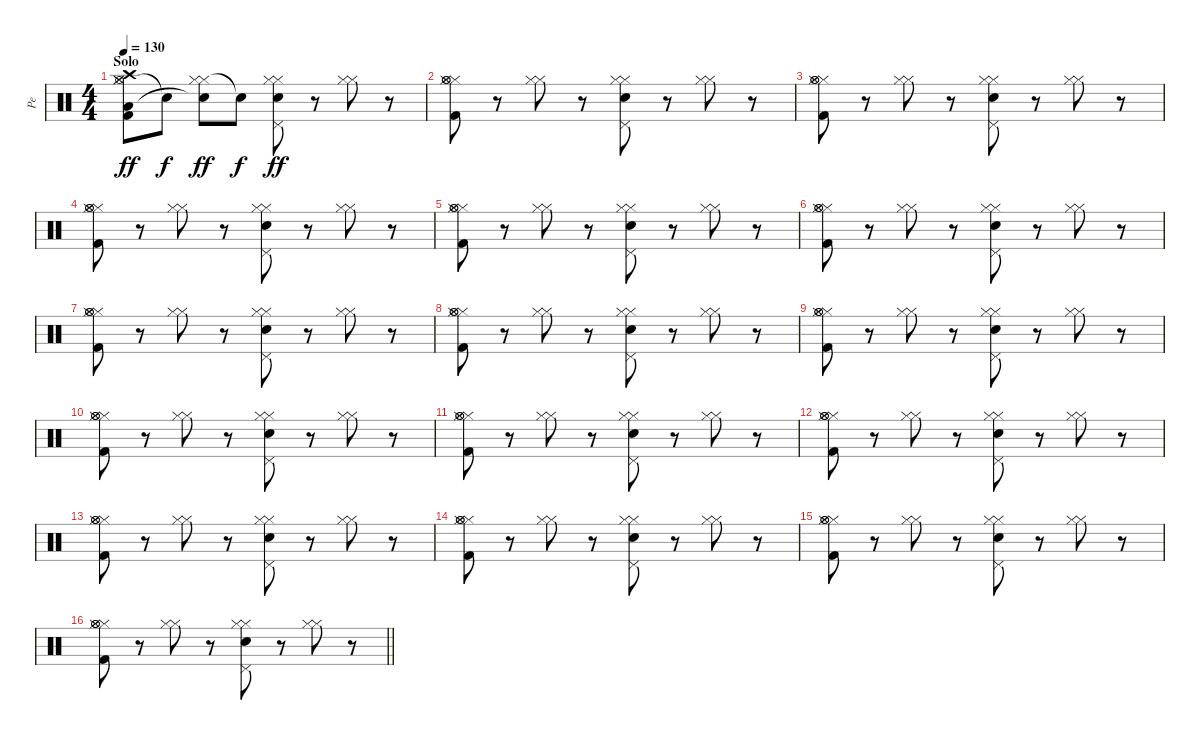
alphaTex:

\track ("Pe" "Pe") {instrument percussion}
\staff {score}
\articulation defaults
\ts (4 4)
\section ("" "Solo")
\tempo 130
\clef neutral
\ks c
("Hi-Hat (closed)" "Hi-Hat (closed)" "Low Floor Tom (hit)" "Hi-Hat (open)" "Crash high (hit)" "Kick (hit) 2").8{dy ff} "Snare (hit)"{t}.8{dy f} ("Hi-Hat (closed)" "Hi-Hat (closed)" "Snare (hit)"{t}).8{dy ff} "Snare (hit)"{t}.8{dy f} ("Hi-Hat (closed)" "Hi-Hat (closed)" "Pedal Hi-Hat (hit)" "Electric Snare (hit)").8{dy ff} r.8 ("Hi-Hat (closed)" "Hi-Hat (closed)").8 r.8 |
("Hi-Hat (closed)" "Hi-Hat (closed)" "Hi-Hat (open)" "Hi-Hat (open)" "Kick (hit) 2").8 r.8 ("Hi-Hat (closed)" "Hi-Hat (closed)").8 r.8 ("Hi-Hat (closed)" "Hi-Hat (closed)" "Pedal Hi-Hat (hit)" "Electric Snare (hit)").8 r.8 ("Hi-Hat (closed)" "Hi-Hat (closed)").8 r.8 |
("Hi-Hat (closed)" "Hi-Hat (closed)" "Hi-Hat (open)" "Hi-Hat (open)" "Kick (hit) 2").8 r.8 ("Hi-Hat (closed)" "Hi-Hat (closed)").8 r.8 ("Hi-Hat (closed)" "Hi-Hat (closed)" "Pedal Hi-Hat (hit)" "Electric Snare (hit)").8 r.8 ("Hi-Hat (closed)" "Hi-Hat (closed)").8 r.8 |
("Hi-Hat (closed)" "Hi-Hat (closed)" "Hi-Hat (open)" "Hi-Hat (open)" "Kick (hit) 2").8 r.8 ("Hi-Hat (closed)" "Hi-Hat (closed)").8 r.8 ("Hi-Hat (closed)" "Hi-Hat (closed)" "Pedal Hi-Hat (hit)" "Electric Snare (hit)").8 r.8 ("Hi-Hat (closed)" "Hi-Hat (closed)").8 r.8 |
("Hi-Hat (closed)" "Hi-Hat (closed)" "Hi-Hat (open)" "Hi-Hat (open)" "Kick (hit) 2").8 r.8 ("Hi-Hat (closed)" "Hi-Hat (closed)").8 r.8 ("Hi-Hat (closed)" "Hi-Hat (closed)" "Pedal Hi-Hat (hit)" "Electric Snare (hit)").8 r.8 ("Hi-Hat (closed)" "Hi-Hat (closed)").8 r.8 |
("Hi-Hat (closed)" "Hi-Hat (closed)" "Hi-Hat (open)" "Hi-Hat (open)" "Kick (hit) 2").8 r.8 ("Hi-Hat (closed)" "Hi-Hat (closed)").8 r.8 ("Hi-Hat (closed)" "Hi-Hat (closed)" "Pedal Hi-Hat (hit)" "Electric Snare (hit)").8 r.8 ("Hi-Hat (closed)" "Hi-Hat (closed)").8 r.8 |
("Hi-Hat (closed)" "Hi-Hat (closed)" "Hi-Hat (open)" "Hi-Hat (open)" "Kick (hit) 2").8 r.8 ("Hi-Hat (closed)" "Hi-Hat (closed)").8 r.8 ("Hi-Hat (closed)" "Hi-Hat (closed)" "Pedal Hi-Hat (hit)" "Electric Snare (hit)").8 r.8 ("Hi-Hat (closed)" "Hi-Hat (closed)").8 r.8 |
("Hi-Hat (closed)" "Hi-Hat (closed)" "Hi-Hat (open)" "Hi-Hat (open)" "Kick (hit) 2").8 r.8 ("Hi-Hat (closed)" "Hi-Hat (closed)").8 r.8 ("Hi-Hat (closed)" "Hi-Hat (closed)" "Pedal Hi-Hat (hit)" "Electric Snare (hit)").8 r.8 ("Hi-Hat (closed)" "Hi-Hat (closed)").8 r.8 |
("Hi-Hat (closed)" "Hi-Hat (closed)" "Hi-Hat (open)" "Hi-Hat (open)" "Kick (hit) 2").8 r.8 ("Hi-Hat (closed)" "Hi-Hat (closed)").8 r.8 ("Hi-Hat (closed)" "Hi-Hat (closed)" "Pedal Hi-Hat (hit)" "Electric Snare (hit)").8 r.8 ("Hi-Hat (closed)" "Hi-Hat (closed)").8 r.8 |
("Hi-Hat (closed)" "Hi-Hat (closed)" "Hi-Hat (open)" "Hi-Hat (open)" "Kick (hit) 2").8 r.8 ("Hi-Hat (closed)" "Hi-Hat (closed)").8 r.8 ("Hi-Hat (closed)" "Hi-Hat (closed)" "Pedal Hi-Hat (hit)" "Electric Snare (hit)").8 r.8 ("Hi-Hat (closed)" "Hi-Hat (closed)").8 r.8 |
("Hi-Hat (closed)" "Hi-Hat (closed)" "Hi-Hat (open)" "Hi-Hat (open)" "Kick (hit) 2").8 r.8 ("Hi-Hat (closed)" "Hi-Hat (closed)").8 r.8 ("Hi-Hat (closed)" "Hi-Hat (closed)" "Pedal Hi-Hat (hit)" "Electric Snare (hit)").8 r.8 ("Hi-Hat (closed)" "Hi-Hat (closed)").8 r.8 |
("Hi-Hat (closed)" "Hi-Hat (closed)" "Hi-Hat (open)" "Hi-Hat (open)" "Kick (hit) 2").8 r.8 ("Hi-Hat (closed)" "Hi-Hat (closed)").8 r.8 ("Hi-Hat (closed)" "Hi-Hat (closed)" "Pedal Hi-Hat (hit)" "Electric Snare (hit)").8 r.8 ("Hi-Hat (closed)" "Hi-Hat (closed)").8 r.8 |
("Hi-Hat (closed)" "Hi-Hat (closed)" "Hi-Hat (open)" "Hi-Hat (open)" "Kick (hit) 2").8 r.8 ("Hi-Hat (closed)" "Hi-Hat (closed)").8 r.8 ("Hi-Hat (closed)" "Hi-Hat (closed)" "Pedal Hi-Hat (hit)" "Electric Snare (hit)").8 r.8 ("Hi-Hat (closed)" "Hi-Hat (closed)").8 r.8 |
("Hi-Hat (closed)" "Hi-Hat (closed)" "Hi-Hat (open)" "Hi-Hat (open)" "Kick (hit) 2").8 r.8 ("Hi-Hat (closed)" "Hi-Hat (closed)").8 r.8 ("Hi-Hat (closed)" "Hi-Hat (closed)" "Pedal Hi-Hat (hit)" "Electric Snare (hit)").8 r.8 ("Hi-Hat (closed)" "Hi-Hat (closed)").8 r.8 |
("Hi-Hat (closed)" "Hi-Hat (closed)" "Hi-Hat (open)" "Hi-Hat (open)" "Kick (hit) 2").8 r.8 ("Hi-Hat (closed)" "Hi-Hat (closed)").8 r.8 ("Hi-Hat (closed)" "Hi-Hat (closed)" "Pedal Hi-Hat (hit)" "Electric Snare (hit)").8 r.8 ("Hi-Hat (closed)" "Hi-Hat (closed)").8 r.8 |
\barLineRight lightlight
("Hi-Hat (closed)" "Hi-Hat (closed)" "Hi-Hat (open)" "Hi-Hat (open)" "Kick (hit) 2").8 r.8 ("Hi-Hat (closed)" "Hi-Hat (closed)").8 r.8 ("Hi-Hat (closed)" "Hi-Hat (closed)" "Pedal Hi-Hat (hit)" "Electric Snare (hit)").8 r.8 ("Hi-Hat (closed)" "Hi-Hat (closed)").8 r.8
